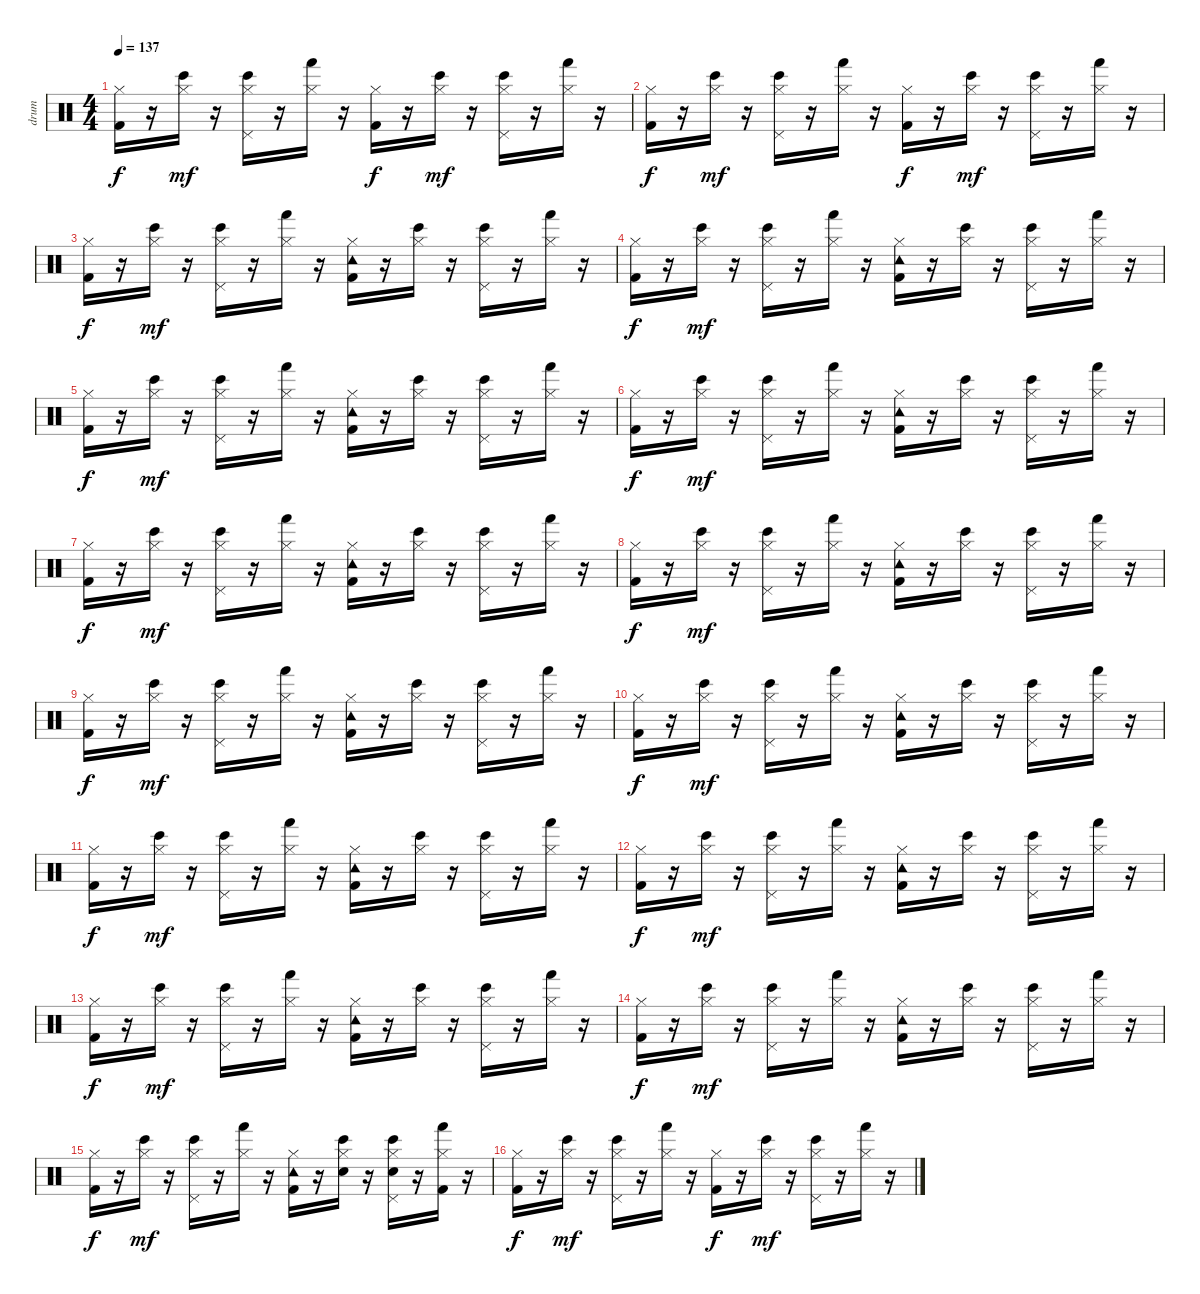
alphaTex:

\track ("drum" "drum") {instrument percussion}
\staff {score}
\articulation defaults
\ts (4 4)
\tempo 137
\clef neutral
\ks c
("Hi-Hat (closed)" "Kick (hit) 2").16{dy f} r.16 ("Bongo High (hit)" "Hi-Hat (closed)").16{dy mf} r.16 ("Bongo High (hit)" "Hi-Hat (closed)" "Pedal Hi-Hat (hit)").16 r.16 ("Hand (hit)" "Hi-Hat (closed)").16 r.16 ("Hi-Hat (closed)" "Kick (hit) 2").16{dy f} r.16 ("Hi-Hat (closed)" "Bongo High (hit)").16{dy mf} r.16 ("Hi-Hat (closed)" "Bongo High (hit)" "Pedal Hi-Hat (hit)").16 r.16 ("Hand (hit)" "Hi-Hat (closed)").16 r.16 |
("Kick (hit) 2" "Hi-Hat (closed)").16{dy f} r.16 ("Bongo High (hit)" "Hi-Hat (closed)").16{dy mf} r.16 ("Bongo High (hit)" "Hi-Hat (closed)" "Pedal Hi-Hat (hit)").16 r.16 ("Hand (hit)" "Hi-Hat (closed)").16 r.16 ("Hi-Hat (closed)" "Kick (hit) 2").16{dy f} r.16 ("Hi-Hat (closed)" "Bongo High (hit)").16{dy mf} r.16 ("Bongo High (hit)" "Hi-Hat (closed)" "Pedal Hi-Hat (hit)").16 r.16 ("Hand (hit)" "Hi-Hat (closed)").16 r.16 |
("Kick (hit) 2" "Hi-Hat (closed)").16{dy f} r.16 ("Hi-Hat (closed)" "Bongo High (hit)").16{dy mf} r.16 ("Bongo High (hit)" "Hi-Hat (closed)" "Pedal Hi-Hat (hit)").16 r.16 ("Hand (hit)" "Hi-Hat (closed)").16 r.16 ("Tambourine (hit)" "Hi-Hat (closed)" "Kick (hit) 2").16 r.16 ("Hi-Hat (closed)" "Bongo High (hit)").16 r.16 ("Hi-Hat (closed)" "Bongo High (hit)" "Pedal Hi-Hat (hit)").16 r.16 ("Hand (hit)" "Hi-Hat (closed)").16 r.16 |
("Kick (hit) 2" "Hi-Hat (closed)").16{dy f} r.16 ("Bongo High (hit)" "Hi-Hat (closed)").16{dy mf} r.16 ("Hi-Hat (closed)" "Bongo High (hit)" "Pedal Hi-Hat (hit)").16 r.16 ("Hand (hit)" "Hi-Hat (closed)").16 r.16 ("Tambourine (hit)" "Kick (hit) 2" "Hi-Hat (closed)").16 r.16 ("Bongo High (hit)" "Hi-Hat (closed)").16 r.16 ("Hi-Hat (closed)" "Bongo High (hit)" "Pedal Hi-Hat (hit)").16 r.16 ("Hand (hit)" "Hi-Hat (closed)").16 r.16 |
("Kick (hit) 2" "Hi-Hat (closed)").16{dy f} r.16 ("Bongo High (hit)" "Hi-Hat (closed)").16{dy mf} r.16 ("Bongo High (hit)" "Hi-Hat (closed)" "Pedal Hi-Hat (hit)").16 r.16 ("Hi-Hat (closed)" "Hand (hit)").16 r.16 ("Hi-Hat (closed)" "Kick (hit) 2" "Tambourine (hit)").16 r.16 ("Hi-Hat (closed)" "Bongo High (hit)").16 r.16 ("Bongo High (hit)" "Hi-Hat (closed)" "Pedal Hi-Hat (hit)").16 r.16 ("Hi-Hat (closed)" "Hand (hit)").16 r.16 |
("Kick (hit) 2" "Hi-Hat (closed)").16{dy f} r.16 ("Hi-Hat (closed)" "Bongo High (hit)").16{dy mf} r.16 ("Bongo High (hit)" "Hi-Hat (closed)" "Pedal Hi-Hat (hit)").16 r.16 ("Hi-Hat (closed)" "Hand (hit)").16 r.16 ("Tambourine (hit)" "Kick (hit) 2" "Hi-Hat (closed)").16 r.16 ("Hi-Hat (closed)" "Bongo High (hit)").16 r.16 ("Hi-Hat (closed)" "Bongo High (hit)" "Pedal Hi-Hat (hit)").16 r.16 ("Hand (hit)" "Hi-Hat (closed)").16 r.16 |
("Kick (hit) 2" "Hi-Hat (closed)").16{dy f} r.16 ("Bongo High (hit)" "Hi-Hat (closed)").16{dy mf} r.16 ("Bongo High (hit)" "Hi-Hat (closed)" "Pedal Hi-Hat (hit)").16 r.16 ("Hi-Hat (closed)" "Hand (hit)").16 r.16 ("Kick (hit) 2" "Tambourine (hit)" "Hi-Hat (closed)").16 r.16 ("Bongo High (hit)" "Hi-Hat (closed)").16 r.16 ("Bongo High (hit)" "Hi-Hat (closed)" "Pedal Hi-Hat (hit)").16 r.16 ("Hand (hit)" "Hi-Hat (closed)").16 r.16 |
("Hi-Hat (closed)" "Kick (hit) 2").16{dy f} r.16 ("Hi-Hat (closed)" "Bongo High (hit)").16{dy mf} r.16 ("Hi-Hat (closed)" "Bongo High (hit)" "Pedal Hi-Hat (hit)").16 r.16 ("Hi-Hat (closed)" "Hand (hit)").16 r.16 ("Tambourine (hit)" "Kick (hit) 2" "Hi-Hat (closed)").16 r.16 ("Bongo High (hit)" "Hi-Hat (closed)").16 r.16 ("Hi-Hat (closed)" "Bongo High (hit)" "Pedal Hi-Hat (hit)").16 r.16 ("Hi-Hat (closed)" "Hand (hit)").16 r.16 |
("Hi-Hat (closed)" "Kick (hit) 2").16{dy f} r.16 ("Hi-Hat (closed)" "Bongo High (hit)").16{dy mf} r.16 ("Bongo High (hit)" "Hi-Hat (closed)" "Pedal Hi-Hat (hit)").16 r.16 ("Hi-Hat (closed)" "Hand (hit)").16 r.16 ("Kick (hit) 2" "Tambourine (hit)" "Hi-Hat (closed)").16 r.16 ("Hi-Hat (closed)" "Bongo High (hit)").16 r.16 ("Bongo High (hit)" "Hi-Hat (closed)" "Pedal Hi-Hat (hit)").16 r.16 ("Hand (hit)" "Hi-Hat (closed)").16 r.16 |
("Hi-Hat (closed)" "Kick (hit) 2").16{dy f} r.16 ("Bongo High (hit)" "Hi-Hat (closed)").16{dy mf} r.16 ("Bongo High (hit)" "Hi-Hat (closed)" "Pedal Hi-Hat (hit)").16 r.16 ("Hi-Hat (closed)" "Hand (hit)").16 r.16 ("Tambourine (hit)" "Kick (hit) 2" "Hi-Hat (closed)").16 r.16 ("Hi-Hat (closed)" "Bongo High (hit)").16 r.16 ("Hi-Hat (closed)" "Bongo High (hit)" "Pedal Hi-Hat (hit)").16 r.16 ("Hand (hit)" "Hi-Hat (closed)").16 r.16 |
("Kick (hit) 2" "Hi-Hat (closed)").16{dy f} r.16 ("Bongo High (hit)" "Hi-Hat (closed)").16{dy mf} r.16 ("Bongo High (hit)" "Hi-Hat (closed)" "Pedal Hi-Hat (hit)").16 r.16 ("Hi-Hat (closed)" "Hand (hit)").16 r.16 ("Kick (hit) 2" "Hi-Hat (closed)" "Tambourine (hit)").16 r.16 ("Hi-Hat (closed)" "Bongo High (hit)").16 r.16 ("Hi-Hat (closed)" "Bongo High (hit)" "Pedal Hi-Hat (hit)").16 r.16 ("Hi-Hat (closed)" "Hand (hit)").16 r.16 |
("Hi-Hat (closed)" "Kick (hit) 2").16{dy f} r.16 ("Hi-Hat (closed)" "Bongo High (hit)").16{dy mf} r.16 ("Hi-Hat (closed)" "Bongo High (hit)" "Pedal Hi-Hat (hit)").16 r.16 ("Hi-Hat (closed)" "Hand (hit)").16 r.16 ("Tambourine (hit)" "Hi-Hat (closed)" "Kick (hit) 2").16 r.16 ("Bongo High (hit)" "Hi-Hat (closed)").16 r.16 ("Bongo High (hit)" "Hi-Hat (closed)" "Pedal Hi-Hat (hit)").16 r.16 ("Hi-Hat (closed)" "Hand (hit)").16 r.16 |
("Kick (hit) 2" "Hi-Hat (closed)").16{dy f} r.16 ("Bongo High (hit)" "Hi-Hat (closed)").16{dy mf} r.16 ("Bongo High (hit)" "Hi-Hat (closed)" "Pedal Hi-Hat (hit)").16 r.16 ("Hand (hit)" "Hi-Hat (closed)").16 r.16 ("Tambourine (hit)" "Hi-Hat (closed)" "Kick (hit) 2").16 r.16 ("Hi-Hat (closed)" "Bongo High (hit)").16 r.16 ("Bongo High (hit)" "Hi-Hat (closed)" "Pedal Hi-Hat (hit)").16 r.16 ("Hand (hit)" "Hi-Hat (closed)").16 r.16 |
("Hi-Hat (closed)" "Kick (hit) 2").16{dy f} r.16 ("Bongo High (hit)" "Hi-Hat (closed)").16{dy mf} r.16 ("Bongo High (hit)" "Hi-Hat (closed)" "Pedal Hi-Hat (hit)").16 r.16 ("Hi-Hat (closed)" "Hand (hit)").16 r.16 ("Tambourine (hit)" "Kick (hit) 2" "Hi-Hat (closed)").16 r.16 ("Bongo High (hit)" "Hi-Hat (closed)").16 r.16 ("Bongo High (hit)" "Hi-Hat (closed)" "Pedal Hi-Hat (hit)").16 r.16 ("Hand (hit)" "Hi-Hat (closed)").16 r.16 |
("Kick (hit) 2" "Hi-Hat (closed)").16{dy f} r.16 ("Bongo High (hit)" "Hi-Hat (closed)").16{dy mf} r.16 ("Hi-Hat (closed)" "Bongo High (hit)" "Pedal Hi-Hat (hit)").16 r.16 ("Hi-Hat (closed)" "Hand (hit)").16 r.16 ("Hi-Hat (closed)" "Kick (hit) 2" "Tambourine (hit)").16 r.16 ("Bongo High (hit)" "Snare (hit) 2" "Hi-Hat (closed)").16 r.16 ("Bongo High (hit)" "Snare (hit) 2" "Hi-Hat (closed)" "Pedal Hi-Hat (hit)").16 r.16 ("Hand (hit)" "Kick (hit) 2" "Hi-Hat (closed)").16 r.16 |
("Hi-Hat (closed)" "Kick (hit) 2").16{dy f} r.16 ("Bongo High (hit)" "Hi-Hat (closed)").16{dy mf} r.16 ("Bongo High (hit)" "Hi-Hat (closed)" "Pedal Hi-Hat (hit)").16 r.16 ("Hand (hit)" "Hi-Hat (closed)").16 r.16 ("Hi-Hat (closed)" "Kick (hit) 2").16{dy f} r.16 ("Hi-Hat (closed)" "Bongo High (hit)").16{dy mf} r.16 ("Bongo High (hit)" "Hi-Hat (closed)" "Pedal Hi-Hat (hit)").16 r.16 ("Hand (hit)" "Hi-Hat (closed)").16 r.16
